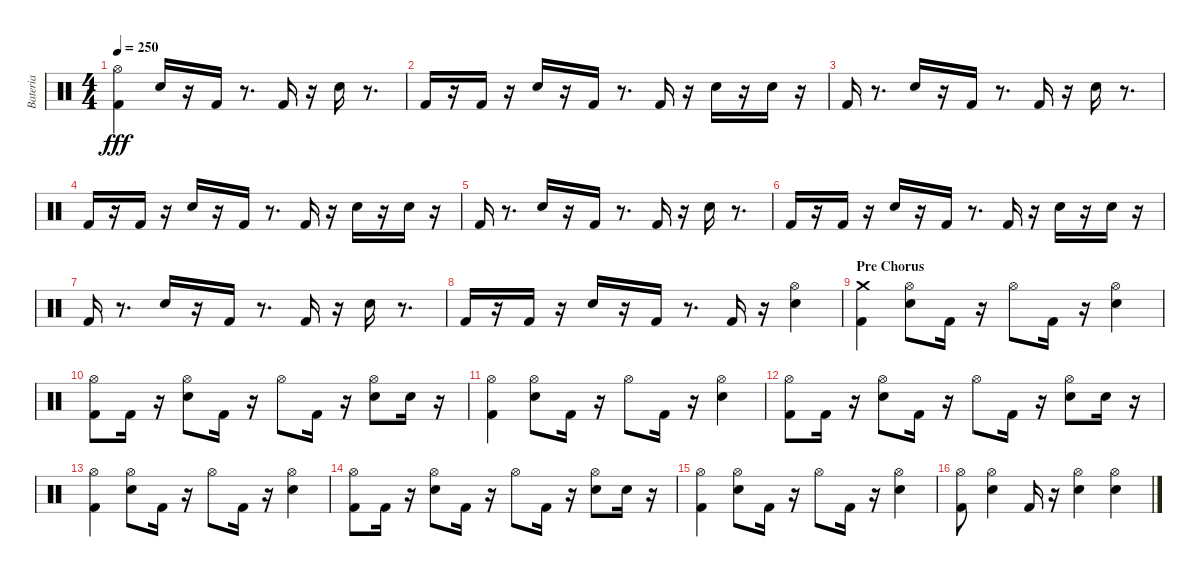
\track ("Bateria" "Bateria") {instrument percussion}
\staff {score}
\articulation defaults
\ts (4 4)
\tempo 250
\clef neutral
\ks c
("Hi-Hat (open)" "Kick (hit) 2").4{dy fff} "Electric Snare (hit)".16 r.16 "Kick (hit) 2".16 r.8{d} "Kick (hit) 2".16 r.16 "Electric Snare (hit)".16 r.8{d} |
"Kick (hit) 2".16 r.16 "Kick (hit) 2".16 r.16 "Electric Snare (hit)".16 r.16 "Kick (hit) 2".16 r.8{d} "Kick (hit) 2".16 r.16 "Electric Snare (hit)".16 r.16 "Electric Snare (hit)".16 r.16 |
"Kick (hit) 2".16 r.8{d} "Electric Snare (hit)".16 r.16 "Kick (hit) 2".16 r.8{d} "Kick (hit) 2".16 r.16 "Electric Snare (hit)".16 r.8{d} |
"Kick (hit) 2".16 r.16 "Kick (hit) 2".16 r.16 "Electric Snare (hit)".16 r.16 "Kick (hit) 2".16 r.8{d} "Kick (hit) 2".16 r.16 "Electric Snare (hit)".16 r.16 "Electric Snare (hit)".16 r.16 |
"Kick (hit) 2".16 r.8{d} "Electric Snare (hit)".16 r.16 "Kick (hit) 2".16 r.8{d} "Kick (hit) 2".16 r.16 "Electric Snare (hit)".16 r.8{d} |
"Kick (hit) 2".16 r.16 "Kick (hit) 2".16 r.16 "Electric Snare (hit)".16 r.16 "Kick (hit) 2".16 r.8{d} "Kick (hit) 2".16 r.16 "Electric Snare (hit)".16 r.16 "Electric Snare (hit)".16 r.16 |
"Kick (hit) 2".16 r.8{d} "Electric Snare (hit)".16 r.16 "Kick (hit) 2".16 r.8{d} "Kick (hit) 2".16 r.16 "Electric Snare (hit)".16 r.8{d} |
"Kick (hit) 2".16 r.16 "Kick (hit) 2".16 r.16 "Electric Snare (hit)".16 r.16 "Kick (hit) 2".16 r.8{d} "Kick (hit) 2".16 r.16 ("Electric Snare (hit)" "Hi-Hat (open)").4 |
\section ("" "Pre Chorus")
("Crash medium (hit)" "Kick (hit) 2").4 ("Electric Snare (hit)" "Hi-Hat (open)").8 "Kick (hit) 2".16 r.16 "Hi-Hat (open)".8 "Kick (hit) 2".16 r.16 ("Electric Snare (hit)" "Hi-Hat (open)").4 |
("Kick (hit) 2" "Hi-Hat (open)").8 "Kick (hit) 2".16 r.16 ("Electric Snare (hit)" "Hi-Hat (open)").8 "Kick (hit) 2".16 r.16 "Hi-Hat (open)".8 "Kick (hit) 2".16 r.16 ("Electric Snare (hit)" "Hi-Hat (open)").8 "Electric Snare (hit)".16 r.16 |
("Kick (hit) 2" "Hi-Hat (open)").4 ("Electric Snare (hit)" "Hi-Hat (open)").8 "Kick (hit) 2".16 r.16 "Hi-Hat (open)".8 "Kick (hit) 2".16 r.16 ("Electric Snare (hit)" "Hi-Hat (open)").4 |
("Kick (hit) 2" "Hi-Hat (open)").8 "Kick (hit) 2".16 r.16 ("Electric Snare (hit)" "Hi-Hat (open)").8 "Kick (hit) 2".16 r.16 "Hi-Hat (open)".8 "Kick (hit) 2".16 r.16 ("Electric Snare (hit)" "Hi-Hat (open)").8 "Electric Snare (hit)".16 r.16 |
("Kick (hit) 2" "Hi-Hat (open)").4 ("Electric Snare (hit)" "Hi-Hat (open)").8 "Kick (hit) 2".16 r.16 "Hi-Hat (open)".8 "Kick (hit) 2".16 r.16 ("Electric Snare (hit)" "Hi-Hat (open)").4 |
("Kick (hit) 2" "Hi-Hat (open)").8 "Kick (hit) 2".16 r.16 ("Electric Snare (hit)" "Hi-Hat (open)").8 "Kick (hit) 2".16 r.16 "Hi-Hat (open)".8 "Kick (hit) 2".16 r.16 ("Electric Snare (hit)" "Hi-Hat (open)").8 "Electric Snare (hit)".16 r.16 |
("Kick (hit) 2" "Hi-Hat (open)").4 ("Electric Snare (hit)" "Hi-Hat (open)").8 "Kick (hit) 2".16 r.16 "Hi-Hat (open)".8 "Kick (hit) 2".16 r.16 ("Electric Snare (hit)" "Hi-Hat (open)").4 |
("Kick (hit) 2" "Hi-Hat (open)").8 ("Electric Snare (hit)" "Hi-Hat (open)").4 "Kick (hit) 2".16 r.16 ("Electric Snare (hit)" "Hi-Hat (open)").4 ("Electric Snare (hit)" "Hi-Hat (open)").4
